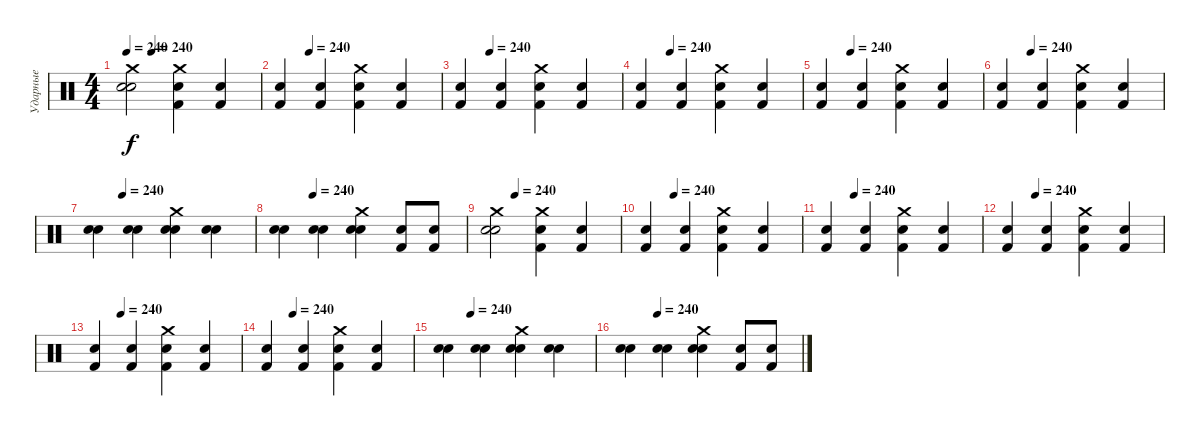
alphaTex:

\track ("Ударные" "Ударные") {instrument percussion}
\staff {score}
\articulation defaults
\ts (4 4)
\tempo 240
\tempo (240 0.1875)
\clef neutral
\ks c
("Crash medium (hit)" "Snare (hit) 2" "Snare (hit) 2").2{dy f} ("Crash medium (hit)" "Kick (hit) 2" "Snare (hit) 2").4 ("Kick (hit) 2" "Snare (hit) 2").4 |
\tempo (240 0.1875)
("Kick (hit) 2" "Snare (hit) 2").4 ("Snare (hit) 2" "Kick (hit) 2").4 ("Crash medium (hit)" "Snare (hit) 2" "Kick (hit) 2").4 ("Snare (hit) 2" "Kick (hit) 2").4 |
\tempo (240 0.1875)
("Kick (hit) 2" "Snare (hit) 2").4 ("Kick (hit) 2" "Snare (hit) 2").4 ("Crash medium (hit)" "Kick (hit) 2" "Snare (hit) 2").4 ("Kick (hit) 2" "Snare (hit) 2").4 |
\tempo (240 0.1875)
("Kick (hit) 2" "Snare (hit) 2").4 ("Kick (hit) 2" "Snare (hit) 2").4 ("Crash medium (hit)" "Snare (hit) 2" "Kick (hit) 2").4 ("Snare (hit) 2" "Kick (hit) 2").4 |
\tempo (240 0.1875)
("Kick (hit) 2" "Snare (hit) 2").4 ("Kick (hit) 2" "Snare (hit) 2").4 ("Crash medium (hit)" "Kick (hit) 2" "Snare (hit) 2").4 ("Kick (hit) 2" "Snare (hit) 2").4 |
\tempo (240 0.1875)
("Kick (hit) 2" "Snare (hit) 2").4 ("Kick (hit) 2" "Snare (hit) 2").4 ("Crash medium (hit)" "Snare (hit) 2" "Kick (hit) 2").4 ("Snare (hit) 2" "Kick (hit) 2").4 |
\tempo (240 0.1875)
("Snare (hit) 2" "Snare (hit) 2").4 ("Snare (hit) 2" "Snare (hit) 2").4 ("Crash medium (hit)" "Snare (hit) 2" "Snare (hit) 2").4 ("Snare (hit) 2" "Snare (hit) 2").4 |
\tempo (240 0.1875)
("Snare (hit) 2" "Snare (hit) 2").4 ("Snare (hit) 2" "Snare (hit) 2").4 ("Crash medium (hit)" "Snare (hit) 2" "Snare (hit) 2").4 ("Snare (hit) 2" "Kick (hit) 2").8 ("Snare (hit) 2" "Kick (hit) 2").8 |
\tempo (240 0.1875)
("Crash medium (hit)" "Snare (hit) 2" "Snare (hit) 2").2 ("Crash medium (hit)" "Kick (hit) 2" "Snare (hit) 2").4 ("Kick (hit) 2" "Snare (hit) 2").4 |
\tempo (240 0.1875)
("Kick (hit) 2" "Snare (hit) 2").4 ("Snare (hit) 2" "Kick (hit) 2").4 ("Crash medium (hit)" "Snare (hit) 2" "Kick (hit) 2").4 ("Snare (hit) 2" "Kick (hit) 2").4 |
\tempo (240 0.1875)
("Kick (hit) 2" "Snare (hit) 2").4 ("Kick (hit) 2" "Snare (hit) 2").4 ("Crash medium (hit)" "Kick (hit) 2" "Snare (hit) 2").4 ("Kick (hit) 2" "Snare (hit) 2").4 |
\tempo (240 0.1875)
("Kick (hit) 2" "Snare (hit) 2").4 ("Kick (hit) 2" "Snare (hit) 2").4 ("Crash medium (hit)" "Snare (hit) 2" "Kick (hit) 2").4 ("Snare (hit) 2" "Kick (hit) 2").4 |
\tempo (240 0.1875)
("Kick (hit) 2" "Snare (hit) 2").4 ("Kick (hit) 2" "Snare (hit) 2").4 ("Crash medium (hit)" "Kick (hit) 2" "Snare (hit) 2").4 ("Kick (hit) 2" "Snare (hit) 2").4 |
\tempo (240 0.1875)
("Kick (hit) 2" "Snare (hit) 2").4 ("Kick (hit) 2" "Snare (hit) 2").4 ("Crash medium (hit)" "Snare (hit) 2" "Kick (hit) 2").4 ("Snare (hit) 2" "Kick (hit) 2").4 |
\tempo (240 0.1875)
("Snare (hit) 2" "Snare (hit) 2").4 ("Snare (hit) 2" "Snare (hit) 2").4 ("Crash medium (hit)" "Snare (hit) 2" "Snare (hit) 2").4 ("Snare (hit) 2" "Snare (hit) 2").4 |
\tempo (240 0.1875)
("Snare (hit) 2" "Snare (hit) 2").4 ("Snare (hit) 2" "Snare (hit) 2").4 ("Crash medium (hit)" "Snare (hit) 2" "Snare (hit) 2").4 ("Snare (hit) 2" "Kick (hit) 2").8 ("Snare (hit) 2" "Kick (hit) 2").8
